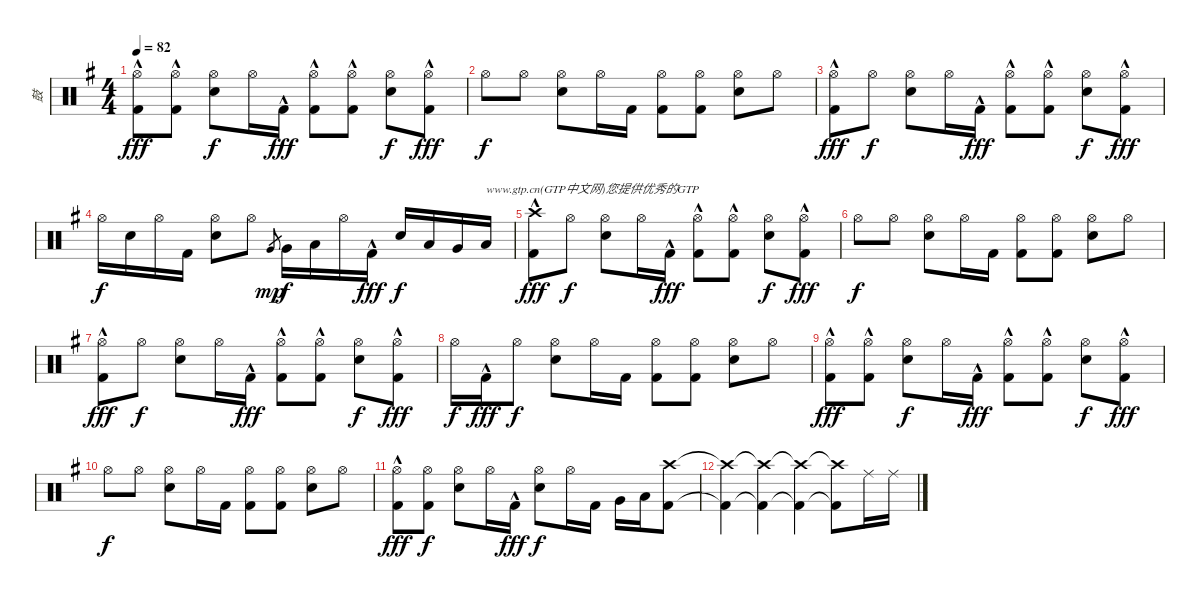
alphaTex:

\track ("鼓" "鼓") {instrument percussion}
\staff {score}
\articulation defaults
\ts (4 4)
\tempo 82
\clef neutral
\ks g
("Hi-Hat (open)" "Kick (hit) 2"{hac}).8{dy fff} ("Hi-Hat (open)" "Kick (hit) 2"{hac}).8 ("Hi-Hat (open)" "Electric Snare (hit)").8{dy f} "Hi-Hat (open)".16 "Kick (hit) 2"{hac}.16{dy fff} ("Hi-Hat (open)" "Kick (hit) 2"{hac}).8 ("Hi-Hat (open)" "Kick (hit) 2"{hac}).8 ("Hi-Hat (open)" "Electric Snare (hit)").8{dy f} ("Hi-Hat (open)" "Kick (hit) 2"{hac}).8{dy fff} |
"Hi-Hat (open)".8{dy f} "Hi-Hat (open)".8 ("Hi-Hat (open)" "Electric Snare (hit)").8 "Hi-Hat (open)".16 "Kick (hit) 2".16 ("Hi-Hat (open)" "Kick (hit) 2").8 ("Hi-Hat (open)" "Kick (hit) 2").8 ("Hi-Hat (open)" "Electric Snare (hit)").8 "Hi-Hat (open)".8 |
("Hi-Hat (open)" "Kick (hit) 2"{hac}).8{dy fff} "Hi-Hat (open)".8{dy f} ("Hi-Hat (open)" "Electric Snare (hit)").8 "Hi-Hat (open)".16 "Kick (hit) 2"{hac}.16{dy fff} ("Hi-Hat (open)" "Kick (hit) 2"{hac}).8 ("Hi-Hat (open)" "Kick (hit) 2"{hac}).8 ("Hi-Hat (open)" "Electric Snare (hit)").8{dy f} ("Hi-Hat (open)" "Kick (hit) 2"{hac}).8{dy fff} |
"Hi-Hat (open)".16{dy f} "Electric Snare (hit)".16 "Hi-Hat (open)".16 "Kick (hit) 2".16 ("Hi-Hat (open)" "Electric Snare (hit)").8 "Hi-Hat (open)".8 "Very Low Tom (hit)".8{gr dy mp} "Very Low Tom (hit)".16{dy f} "Low Floor Tom (hit)".16 "Hi-Hat (open)".16 "Kick (hit) 2"{hac}.16{dy fff} "Electric Snare (hit)".16{dy f} "Low Tom (hit)".16 "Very Low Tom (hit)".16 "Low Floor Tom (hit)".16{txt "www.gtp.cn(GTP中文网)您提供优秀的GTP"} |
("Crash high (hit)" "Kick (hit) 2"{hac}).8{dy fff} "Hi-Hat (open)".8{dy f} ("Hi-Hat (open)" "Electric Snare (hit)").8 "Hi-Hat (open)".16 "Kick (hit) 2"{hac}.16{dy fff} ("Hi-Hat (open)" "Kick (hit) 2"{hac}).8 ("Hi-Hat (open)" "Kick (hit) 2"{hac}).8 ("Hi-Hat (open)" "Electric Snare (hit)").8{dy f} ("Hi-Hat (open)" "Kick (hit) 2"{hac}).8{dy fff} |
"Hi-Hat (open)".8{dy f} "Hi-Hat (open)".8 ("Hi-Hat (open)" "Electric Snare (hit)").8 "Hi-Hat (open)".16 "Kick (hit) 2".16 ("Hi-Hat (open)" "Kick (hit) 2").8 ("Hi-Hat (open)" "Kick (hit) 2").8 ("Hi-Hat (open)" "Electric Snare (hit)").8 "Hi-Hat (open)".8 |
("Hi-Hat (open)" "Kick (hit) 2"{hac}).8{dy fff} "Hi-Hat (open)".8{dy f} ("Hi-Hat (open)" "Electric Snare (hit)").8 "Hi-Hat (open)".16 "Kick (hit) 2"{hac}.16{dy fff} ("Hi-Hat (open)" "Kick (hit) 2"{hac}).8 ("Hi-Hat (open)" "Kick (hit) 2"{hac}).8 ("Hi-Hat (open)" "Electric Snare (hit)").8{dy f} ("Hi-Hat (open)" "Kick (hit) 2"{hac}).8{dy fff} |
"Hi-Hat (open)".16{dy f} "Kick (hit) 2"{hac}.16{dy fff} "Hi-Hat (open)".8{dy f} ("Hi-Hat (open)" "Electric Snare (hit)").8 "Hi-Hat (open)".16 "Kick (hit) 2".16 ("Hi-Hat (open)" "Kick (hit) 2").8 ("Hi-Hat (open)" "Kick (hit) 2").8 ("Hi-Hat (open)" "Electric Snare (hit)").8 "Hi-Hat (open)".8 |
("Hi-Hat (open)" "Kick (hit) 2"{hac}).8{dy fff} ("Hi-Hat (open)" "Kick (hit) 2"{hac}).8 ("Hi-Hat (open)" "Electric Snare (hit)").8{dy f} "Hi-Hat (open)".16 "Kick (hit) 2"{hac}.16{dy fff} ("Hi-Hat (open)" "Kick (hit) 2"{hac}).8 ("Hi-Hat (open)" "Kick (hit) 2"{hac}).8 ("Hi-Hat (open)" "Electric Snare (hit)").8{dy f} ("Hi-Hat (open)" "Kick (hit) 2"{hac}).8{dy fff} |
"Hi-Hat (open)".8{dy f} "Hi-Hat (open)".8 ("Hi-Hat (open)" "Electric Snare (hit)").8 "Hi-Hat (open)".16 "Kick (hit) 2".16 ("Hi-Hat (open)" "Kick (hit) 2").8 ("Hi-Hat (open)" "Kick (hit) 2").8 ("Hi-Hat (open)" "Electric Snare (hit)").8 "Hi-Hat (open)".8 |
("Hi-Hat (open)" "Kick (hit) 2"{hac}).8{dy fff} ("Hi-Hat (open)" "Kick (hit) 2").8{dy f} ("Hi-Hat (open)" "Electric Snare (hit)").8 "Hi-Hat (open)".16 "Kick (hit) 2"{hac}.16{dy fff} ("Hi-Hat (open)" "Electric Snare (hit)").8{dy f} "Hi-Hat (open)".16 "Kick (hit) 2".16 "Very Low Tom (hit)".16 "Low Floor Tom (hit)".16 ("Crash high (hit)" "Kick (hit) 2").8 |
("Crash high (hit)"{t} "Kick (hit) 2"{t}).4 ("Crash high (hit)"{t} "Kick (hit) 2"{t}).4 ("Crash high (hit)"{t} "Kick (hit) 2"{t}).4 ("Crash high (hit)"{t} "Kick (hit) 2"{t}).8 "Ride (middle)".16 "Ride (middle)".16
